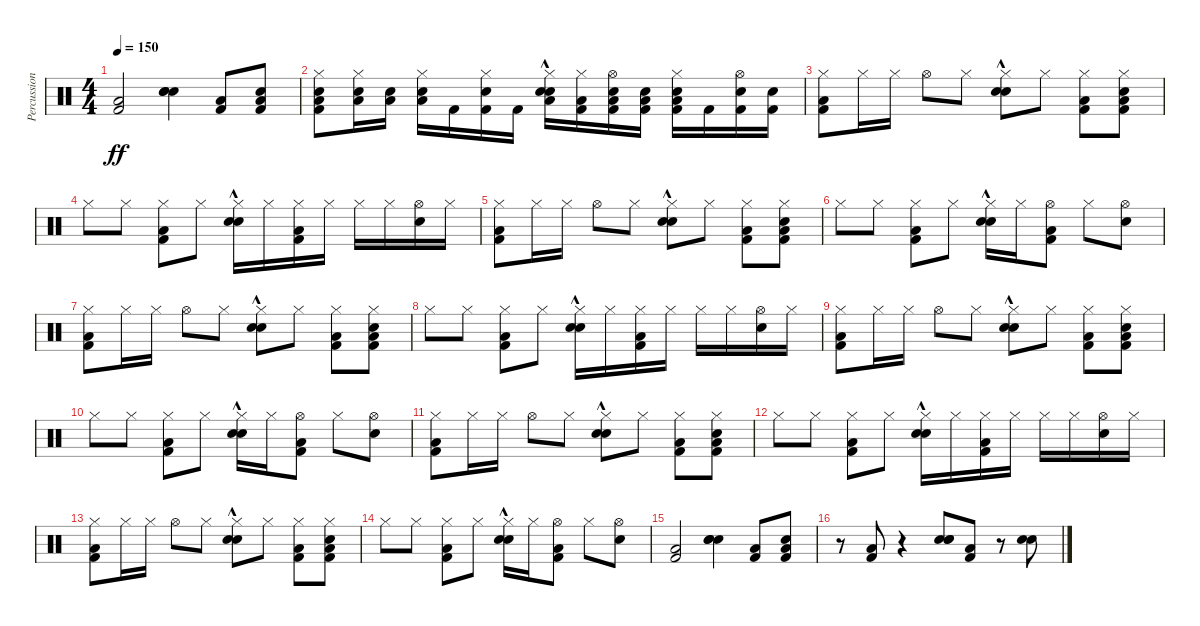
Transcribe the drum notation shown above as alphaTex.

\track ("Percussion" "Percussion") {instrument percussion}
\staff {score}
\articulation defaults
\ts (4 4)
\tempo 150
\clef neutral
\ks c
("Low Floor Tom (hit)" "Kick (hit) 2").2{dy ff} ("Hand Clap (hit)" "Electric Snare (hit)" "Snare (hit) 2").4 ("Low Floor Tom (hit)" "Kick (hit) 2").8 ("Electric Snare (hit)" "Low Floor Tom (hit)" "Kick (hit) 2").8 |
("Hi-Hat (closed)" "Electric Snare (hit)" "Low Floor Tom (hit)" "Kick (hit) 2").8 ("Hi-Hat (closed)" "Electric Snare (hit)" "Low Floor Tom (hit)").16 ("Electric Snare (hit)" "Low Floor Tom (hit)").16 ("Hi-Hat (closed)" "Electric Snare (hit)" "Low Floor Tom (hit)").16 "Kick (hit) 2".16 ("Hi-Hat (closed)" "Electric Snare (hit)" "Kick (hit) 2").16 "Kick (hit) 2".16 ("Hand Clap (hit)"{hac} "Hi-Hat (closed)" "Electric Snare (hit)" "Low Floor Tom (hit)").16 ("Hi-Hat (closed)" "Low Floor Tom (hit)" "Kick (hit) 2").16 ("Hi-Hat (open)" "Electric Snare (hit)" "Low Floor Tom (hit)" "Kick (hit) 2").16 ("Electric Snare (hit)" "Low Floor Tom (hit)" "Kick (hit) 2").16 ("Hi-Hat (closed)" "Electric Snare (hit)" "Low Floor Tom (hit)" "Kick (hit) 2").16 "Kick (hit) 2".16 ("Hi-Hat (open)" "Electric Snare (hit)" "Kick (hit) 2").16 ("Electric Snare (hit)" "Kick (hit) 2").16 |
("Hi-Hat (closed)" "Low Floor Tom (hit)" "Kick (hit) 2").8 "Hi-Hat (closed)".16 "Hi-Hat (closed)".16 "Hi-Hat (open)".8 "Hi-Hat (closed)".8 ("Hand Clap (hit)"{hac} "Hi-Hat (closed)" "Electric Snare (hit)").8 "Hi-Hat (closed)".8 ("Hi-Hat (closed)" "Low Floor Tom (hit)" "Kick (hit) 2").8 ("Hi-Hat (closed)" "Electric Snare (hit)" "Low Floor Tom (hit)" "Kick (hit) 2").8 |
"Hi-Hat (closed)".8 "Hi-Hat (closed)".8 ("Hi-Hat (closed)" "Low Floor Tom (hit)" "Kick (hit) 2").8 "Hi-Hat (closed)".8 ("Hand Clap (hit)"{hac} "Hi-Hat (closed)" "Electric Snare (hit)").16 "Hi-Hat (closed)".16 ("Hi-Hat (closed)" "Low Floor Tom (hit)" "Kick (hit) 2").16 "Hi-Hat (closed)".16 "Hi-Hat (closed)".16 "Hi-Hat (closed)".16 ("Hi-Hat (open)" "Electric Snare (hit)").16 "Hi-Hat (closed)".16 |
("Hi-Hat (closed)" "Low Floor Tom (hit)" "Kick (hit) 2").8 "Hi-Hat (closed)".16 "Hi-Hat (closed)".16 "Hi-Hat (open)".8 "Hi-Hat (closed)".8 ("Hand Clap (hit)"{hac} "Hi-Hat (closed)" "Electric Snare (hit)").8 "Hi-Hat (closed)".8 ("Hi-Hat (closed)" "Low Floor Tom (hit)" "Kick (hit) 2").8 ("Hi-Hat (closed)" "Electric Snare (hit)" "Low Floor Tom (hit)" "Kick (hit) 2").8 |
"Hi-Hat (closed)".8 "Hi-Hat (closed)".8 ("Hi-Hat (closed)" "Low Floor Tom (hit)" "Kick (hit) 2").8 "Hi-Hat (closed)".8 ("Hand Clap (hit)"{hac} "Hi-Hat (closed)" "Electric Snare (hit)").16 "Hi-Hat (closed)".16 ("Hi-Hat (open)" "Low Floor Tom (hit)" "Kick (hit) 2").8 "Hi-Hat (closed)".8 ("Hi-Hat (open)" "Electric Snare (hit)").8 |
("Hi-Hat (closed)" "Low Floor Tom (hit)" "Kick (hit) 2").8 "Hi-Hat (closed)".16 "Hi-Hat (closed)".16 "Hi-Hat (open)".8 "Hi-Hat (closed)".8 ("Hand Clap (hit)"{hac} "Hi-Hat (closed)" "Electric Snare (hit)").8 "Hi-Hat (closed)".8 ("Hi-Hat (closed)" "Low Floor Tom (hit)" "Kick (hit) 2").8 ("Hi-Hat (closed)" "Electric Snare (hit)" "Low Floor Tom (hit)" "Kick (hit) 2").8 |
"Hi-Hat (closed)".8 "Hi-Hat (closed)".8 ("Hi-Hat (closed)" "Low Floor Tom (hit)" "Kick (hit) 2").8 "Hi-Hat (closed)".8 ("Hand Clap (hit)"{hac} "Hi-Hat (closed)" "Electric Snare (hit)").16 "Hi-Hat (closed)".16 ("Hi-Hat (closed)" "Low Floor Tom (hit)" "Kick (hit) 2").16 "Hi-Hat (closed)".16 "Hi-Hat (closed)".16 "Hi-Hat (closed)".16 ("Hi-Hat (open)" "Electric Snare (hit)").16 "Hi-Hat (closed)".16 |
("Hi-Hat (closed)" "Low Floor Tom (hit)" "Kick (hit) 2").8 "Hi-Hat (closed)".16 "Hi-Hat (closed)".16 "Hi-Hat (open)".8 "Hi-Hat (closed)".8 ("Hand Clap (hit)"{hac} "Hi-Hat (closed)" "Electric Snare (hit)").8 "Hi-Hat (closed)".8 ("Hi-Hat (closed)" "Low Floor Tom (hit)" "Kick (hit) 2").8 ("Hi-Hat (closed)" "Electric Snare (hit)" "Low Floor Tom (hit)" "Kick (hit) 2").8 |
"Hi-Hat (closed)".8 "Hi-Hat (closed)".8 ("Hi-Hat (closed)" "Low Floor Tom (hit)" "Kick (hit) 2").8 "Hi-Hat (closed)".8 ("Hand Clap (hit)"{hac} "Hi-Hat (closed)" "Electric Snare (hit)").16 "Hi-Hat (closed)".16 ("Hi-Hat (open)" "Low Floor Tom (hit)" "Kick (hit) 2").8 "Hi-Hat (closed)".8 ("Hi-Hat (open)" "Electric Snare (hit)").8 |
("Hi-Hat (closed)" "Low Floor Tom (hit)" "Kick (hit) 2").8 "Hi-Hat (closed)".16 "Hi-Hat (closed)".16 "Hi-Hat (open)".8 "Hi-Hat (closed)".8 ("Hand Clap (hit)"{hac} "Hi-Hat (closed)" "Electric Snare (hit)").8 "Hi-Hat (closed)".8 ("Hi-Hat (closed)" "Low Floor Tom (hit)" "Kick (hit) 2").8 ("Hi-Hat (closed)" "Electric Snare (hit)" "Low Floor Tom (hit)" "Kick (hit) 2").8 |
"Hi-Hat (closed)".8 "Hi-Hat (closed)".8 ("Hi-Hat (closed)" "Low Floor Tom (hit)" "Kick (hit) 2").8 "Hi-Hat (closed)".8 ("Hand Clap (hit)"{hac} "Hi-Hat (closed)" "Electric Snare (hit)").16 "Hi-Hat (closed)".16 ("Hi-Hat (closed)" "Low Floor Tom (hit)" "Kick (hit) 2").16 "Hi-Hat (closed)".16 "Hi-Hat (closed)".16 "Hi-Hat (closed)".16 ("Hi-Hat (open)" "Electric Snare (hit)").16 "Hi-Hat (closed)".16 |
("Hi-Hat (closed)" "Low Floor Tom (hit)" "Kick (hit) 2").8 "Hi-Hat (closed)".16 "Hi-Hat (closed)".16 "Hi-Hat (open)".8 "Hi-Hat (closed)".8 ("Hand Clap (hit)"{hac} "Hi-Hat (closed)" "Electric Snare (hit)").8 "Hi-Hat (closed)".8 ("Hi-Hat (closed)" "Low Floor Tom (hit)" "Kick (hit) 2").8 ("Hi-Hat (closed)" "Electric Snare (hit)" "Low Floor Tom (hit)" "Kick (hit) 2").8 |
"Hi-Hat (closed)".8 "Hi-Hat (closed)".8 ("Hi-Hat (closed)" "Low Floor Tom (hit)" "Kick (hit) 2").8 "Hi-Hat (closed)".8 ("Hand Clap (hit)"{hac} "Hi-Hat (closed)" "Electric Snare (hit)").16 "Hi-Hat (closed)".16 ("Hi-Hat (open)" "Low Floor Tom (hit)" "Kick (hit) 2").8 "Hi-Hat (closed)".8 ("Hi-Hat (open)" "Electric Snare (hit)").8 |
("Low Floor Tom (hit)" "Kick (hit) 2").2 ("Hand Clap (hit)" "Electric Snare (hit)" "Snare (hit) 2").4 ("Low Floor Tom (hit)" "Kick (hit) 2").8 ("Electric Snare (hit)" "Low Floor Tom (hit)" "Kick (hit) 2").8 |
r.8 ("Low Floor Tom (hit)" "Kick (hit) 2").8 r.4 ("Hand Clap (hit)" "Electric Snare (hit)" "Snare (hit) 2").8 ("Low Floor Tom (hit)" "Kick (hit) 2").8 r.8 ("Electric Snare (hit)" "Electric Snare (hit)").8{bu 60}
